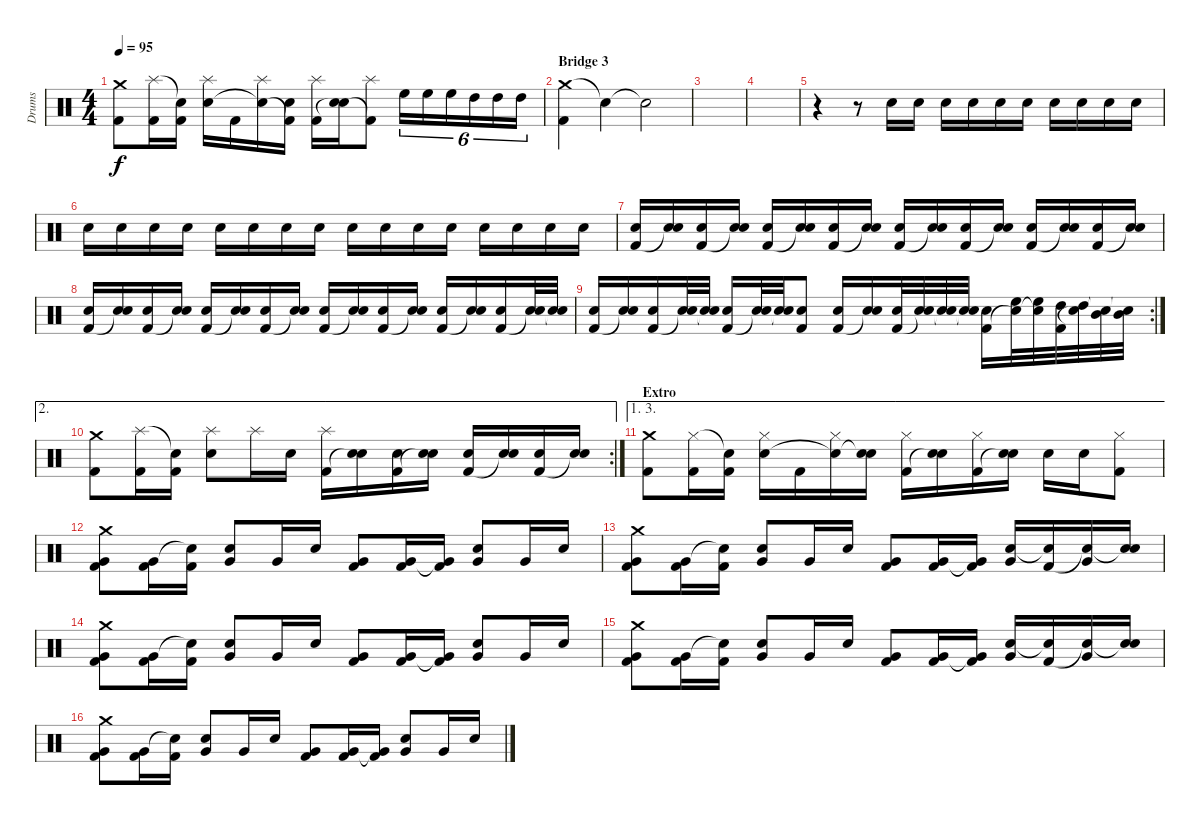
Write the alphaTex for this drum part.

\track ("Drums" "Drums") {instrument percussion}
\staff {score}
\articulation defaults
\ts (4 4)
\tempo 95
\clef neutral
\ks c
("Crash medium (hit)" "Kick (hit) 2").8{dy f} ("Splash (hit)" "Kick (hit) 2").16 ("Snare (hit)"{t} "Kick (hit) 2").16 ("Splash (hit)" "Electric Snare (hit)").16 "Kick (hit) 2".16 ("Splash (hit)" "Snare (hit)"{t}).16 ("Electric Snare (hit)" "Kick (hit) 2"{t}).16 ("Splash (hit)" "Kick (hit) 2").16 ("Electric Snare (hit)" "Snare (hit)"{t}).16 ("Splash (hit)" "Kick (hit) 2"{t}).8 "High Floor Tom (hit)".16{tu (6 4)} "High Floor Tom (hit)".16{tu (6 4)} "High Floor Tom (hit)".16{tu (6 4)} "High Tom (hit)".16{tu (6 4)} "High Tom (hit)".16{tu (6 4)} "High Tom (hit)".16{tu (6 4)} |
\section ("" "Bridge 3")
("Crash medium (hit)" "Kick (hit) 2").4 "Snare (hit)"{t}.4 "Snare (hit)"{t}.2 |
|
|
r.4 r.8 "Electric Snare (hit)".16 "Electric Snare (hit)".16 "Electric Snare (hit)".16 "Electric Snare (hit)".16 "Electric Snare (hit)".16 "Electric Snare (hit)".16 "Electric Snare (hit)".16 "Electric Snare (hit)".16 "Electric Snare (hit)".16 "Electric Snare (hit)".16 |
"Electric Snare (hit)".16 "Electric Snare (hit)".16 "Electric Snare (hit)".16 "Electric Snare (hit)".16 "Electric Snare (hit)".16 "Electric Snare (hit)".16 "Electric Snare (hit)".16 "Electric Snare (hit)".16 "Electric Snare (hit)".16 "Electric Snare (hit)".16 "Electric Snare (hit)".16 "Electric Snare (hit)".16 "Electric Snare (hit)".16 "Electric Snare (hit)".16 "Electric Snare (hit)".16 "Electric Snare (hit)".16 |
("Electric Snare (hit)" "Kick (hit) 2").16 ("Electric Snare (hit)" "Snare (hit)"{t}).16 ("Electric Snare (hit)" "Kick (hit) 2").16 ("Electric Snare (hit)" "Snare (hit)"{t}).16 ("Electric Snare (hit)" "Kick (hit) 2").16 ("Electric Snare (hit)" "Snare (hit)"{t}).16 ("Electric Snare (hit)" "Kick (hit) 2").16 ("Electric Snare (hit)" "Snare (hit)"{t}).16 ("Electric Snare (hit)" "Kick (hit) 2").16 ("Electric Snare (hit)" "Snare (hit)"{t}).16 ("Electric Snare (hit)" "Kick (hit) 2").16 ("Electric Snare (hit)" "Snare (hit)"{t}).16 ("Electric Snare (hit)" "Kick (hit) 2").16 ("Electric Snare (hit)" "Snare (hit)"{t}).16 ("Electric Snare (hit)" "Kick (hit) 2").16 ("Electric Snare (hit)" "Snare (hit)"{t}).16 |
("Electric Snare (hit)" "Kick (hit) 2").16 ("Electric Snare (hit)" "Snare (hit)"{t}).16 ("Electric Snare (hit)" "Kick (hit) 2").16 ("Electric Snare (hit)" "Snare (hit)"{t}).16 ("Electric Snare (hit)" "Kick (hit) 2").16 ("Electric Snare (hit)" "Snare (hit)"{t}).16 ("Electric Snare (hit)" "Kick (hit) 2").16 ("Electric Snare (hit)" "Snare (hit)"{t}).16 ("Electric Snare (hit)" "Kick (hit) 2").16 ("Electric Snare (hit)" "Snare (hit)"{t}).16 ("Electric Snare (hit)" "Kick (hit) 2").16 ("Electric Snare (hit)" "Snare (hit)"{t}).16 ("Electric Snare (hit)" "Kick (hit) 2").16 ("Electric Snare (hit)" "Snare (hit)"{t}).16 ("Electric Snare (hit)" "Kick (hit) 2").16 ("Electric Snare (hit)" "Snare (hit)"{t}).32 ("Electric Snare (hit)" "Snare (hit)"{t}).32 |
\rc 2
("Electric Snare (hit)" "Kick (hit) 2").16 ("Electric Snare (hit)" "Snare (hit)"{t}).16 ("Electric Snare (hit)" "Kick (hit) 2").16 ("Electric Snare (hit)" "Snare (hit)"{t}).32 ("Electric Snare (hit)" "Snare (hit)"{t}).32 ("Electric Snare (hit)" "Kick (hit) 2").16 ("Electric Snare (hit)" "Snare (hit)"{t}).32 ("Electric Snare (hit)" "Snare (hit)"{t}).32 ("Electric Snare (hit)" "Kick (hit) 2").8 ("Electric Snare (hit)" "Kick (hit) 2").16 ("Electric Snare (hit)" "Snare (hit)"{t}).16 ("Electric Snare (hit)" "Kick (hit) 2").32 ("Electric Snare (hit)" "Snare (hit)"{t}).32 ("Electric Snare (hit)" "Snare (hit)"{t}).32 ("Electric Snare (hit)" "Snare (hit)"{t}).32 ("Electric Snare (hit)" "Kick (hit) 2").16 ("High Floor Tom (hit)" "Snare (hit)"{t}).32 ("High Floor Tom (hit)" "Snare (hit)"{t}).32 ("High Tom (hit)" "Kick (hit) 2").32 ("High Tom (hit)" "Snare (hit)"{t}).32 ("Mid Tom (hit)" "Snare (hit)"{t}).32 ("Mid Tom (hit)" "Snare (hit)"{t}).32 |
\ae 2
\rc 2
("Crash medium (hit)" "Kick (hit) 2").8 ("Splash (hit)" "Kick (hit) 2").16 ("Snare (hit)"{t} "Kick (hit) 2").16 ("Splash (hit)" "Electric Snare (hit)").8 "Splash (hit)".16 "Electric Snare (hit)".16 ("Splash (hit)" "Kick (hit) 2").16 ("Electric Snare (hit)" "Snare (hit)"{t}).16 ("Electric Snare (hit)" "Kick (hit) 2").16 ("Electric Snare (hit)" "Snare (hit)"{t}).16 ("Electric Snare (hit)" "Kick (hit) 2").16 ("Electric Snare (hit)" "Snare (hit)"{t}).16 ("Electric Snare (hit)" "Kick (hit) 2").16 ("Electric Snare (hit)" "Snare (hit)"{t}).16 |
\ae (1 3)
\section ("" "Extro")
("Crash medium (hit)" "Kick (hit) 2").8 ("Hi-Hat (closed)" "Kick (hit) 2").16 ("Snare (hit)"{t} "Kick (hit) 2").16 ("Hi-Hat (closed)" "Electric Snare (hit)").16 "Kick (hit) 2".16 ("Hi-Hat (closed)" "Snare (hit)"{t}).16 ("Electric Snare (hit)" "Snare (hit)"{t}).16 ("Hi-Hat (closed)" "Kick (hit) 2").16 ("Electric Snare (hit)" "Snare (hit)"{t}).16 ("Hi-Hat (closed)" "Kick (hit) 2").16 ("Electric Snare (hit)" "Snare (hit)"{t}).16 "Electric Snare (hit)".16 "Electric Snare (hit)".16 ("Hi-Hat (closed)" "Kick (hit) 2").8 |
("Crash medium (hit)" "Very Low Tom (hit)" "Kick (hit) 2").8 ("Very Low Tom (hit)" "Kick (hit) 2").16 ("Snare (hit)"{t} "Kick (hit) 2").16 ("Electric Snare (hit)" "Very Low Tom (hit)").8 "Very Low Tom (hit)".16 "Electric Snare (hit)".16 ("Very Low Tom (hit)" "Kick (hit) 2").8 ("Very Low Tom (hit)" "Kick (hit) 2").16 ("Very Low Tom (hit)"{t} "Kick (hit) 2").16 ("Electric Snare (hit)" "Very Low Tom (hit)").8 "Very Low Tom (hit)".16 "Electric Snare (hit)".16 |
("Crash medium (hit)" "Very Low Tom (hit)" "Kick (hit) 2").8 ("Very Low Tom (hit)" "Kick (hit) 2").16 ("Snare (hit)"{t} "Kick (hit) 2").16 ("Electric Snare (hit)" "Very Low Tom (hit)").8 "Very Low Tom (hit)".16 "Electric Snare (hit)".16 ("Very Low Tom (hit)" "Kick (hit) 2").8 ("Very Low Tom (hit)" "Kick (hit) 2").16 ("Very Low Tom (hit)"{t} "Kick (hit) 2").16 ("Electric Snare (hit)" "Very Low Tom (hit)").16 ("Snare (hit)"{t} "Kick (hit) 2").16 ("Very Low Tom (hit)" "Snare (hit)"{t}).16 ("Electric Snare (hit)" "Snare (hit)"{t}).16 |
("Crash medium (hit)" "Very Low Tom (hit)" "Kick (hit) 2").8 ("Very Low Tom (hit)" "Kick (hit) 2").16 ("Snare (hit)"{t} "Kick (hit) 2").16 ("Electric Snare (hit)" "Very Low Tom (hit)").8 "Very Low Tom (hit)".16 "Electric Snare (hit)".16 ("Very Low Tom (hit)" "Kick (hit) 2").8 ("Very Low Tom (hit)" "Kick (hit) 2").16 ("Very Low Tom (hit)"{t} "Kick (hit) 2").16 ("Electric Snare (hit)" "Very Low Tom (hit)").8 "Very Low Tom (hit)".16 "Electric Snare (hit)".16 |
("Crash medium (hit)" "Very Low Tom (hit)" "Kick (hit) 2").8 ("Very Low Tom (hit)" "Kick (hit) 2").16 ("Snare (hit)"{t} "Kick (hit) 2").16 ("Electric Snare (hit)" "Very Low Tom (hit)").8 "Very Low Tom (hit)".16 "Electric Snare (hit)".16 ("Very Low Tom (hit)" "Kick (hit) 2").8 ("Very Low Tom (hit)" "Kick (hit) 2").16 ("Very Low Tom (hit)"{t} "Kick (hit) 2").16 ("Electric Snare (hit)" "Very Low Tom (hit)").16 ("Snare (hit)"{t} "Kick (hit) 2").16 ("Very Low Tom (hit)" "Snare (hit)"{t}).16 ("Electric Snare (hit)" "Snare (hit)"{t}).16 |
("Crash medium (hit)" "Very Low Tom (hit)" "Kick (hit) 2").8 ("Very Low Tom (hit)" "Kick (hit) 2").16 ("Snare (hit)"{t} "Kick (hit) 2").16 ("Electric Snare (hit)" "Very Low Tom (hit)").8 "Very Low Tom (hit)".16 "Electric Snare (hit)".16 ("Very Low Tom (hit)" "Kick (hit) 2").8 ("Very Low Tom (hit)" "Kick (hit) 2").16 ("Very Low Tom (hit)"{t} "Kick (hit) 2").16 ("Electric Snare (hit)" "Very Low Tom (hit)").8 "Very Low Tom (hit)".16 "Electric Snare (hit)".16
